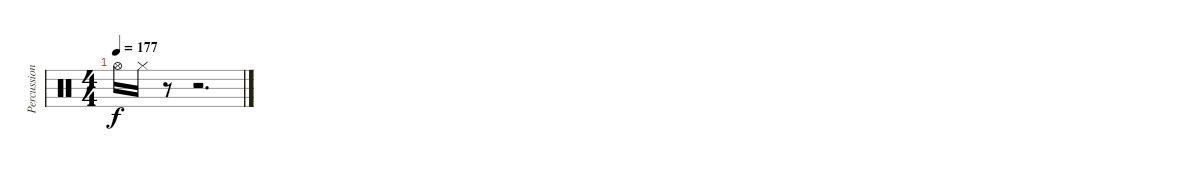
\track ("Percussion" "Percussion") {instrument percussion}
\staff {score}
\articulation defaults
\ts (4 4)
\tempo 177
\clef neutral
\ks c "Hi-Hat (open)".16{dy f} "Hi-Hat (closed)".16
r.8 r.2{d}
